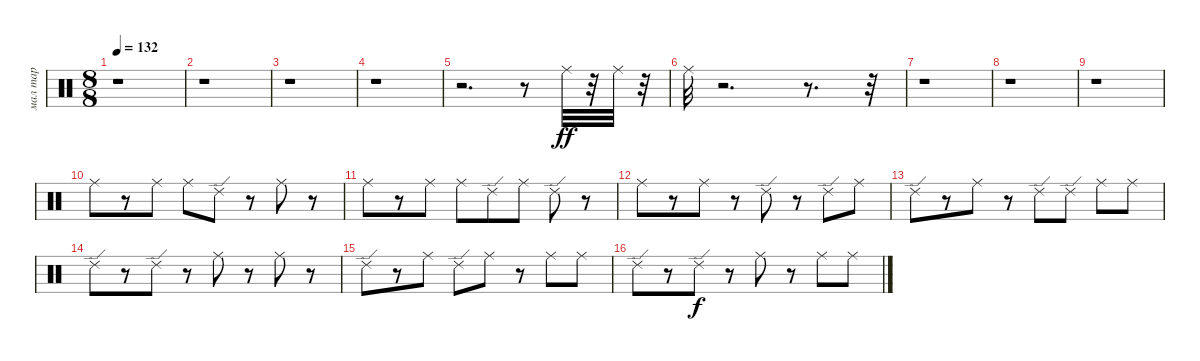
\track ("мал тар" "мал тар") {instrument percussion}
\staff {score}
\articulation defaults
\ts (8 8)
\tempo 132
\clef neutral
\ks c
r.1{dy ff} |
r.1 |
r.1 |
r.1 |
r.2{d} r.8 "Ride (middle)".32 r.32 "Ride (middle)".32 r.32 |
"Ride (middle)".32 r.2{d} r.8{d} r.32 |
r.1 |
r.1 |
r.1 |
"Ride (middle)".8 r.8 "Ride (middle)".8 "Ride (middle)".8 "Ride (edge) 2".8 r.8 "Ride (middle)".8 r.8 |
"Ride (middle)".8 r.8 "Ride (middle)".8 "Ride (middle)".8 "Ride (edge) 2".8 "Ride (middle)".8 "Ride (edge) 2".8 r.8 |
"Ride (middle)".8 r.8 "Ride (middle)".8 r.8 "Ride (edge) 2".8 r.8 "Ride (edge) 2".8 "Ride (middle)".8 |
"Ride (edge) 2".8 r.8 "Ride (middle)".8 r.8 "Ride (edge) 2".8 "Ride (edge) 2".8 "Ride (middle)".8 "Ride (middle)".8 |
"Ride (edge) 2".8 r.8 "Ride (edge) 2".8 r.8 "Ride (middle)".8 r.8 "Ride (middle)".8 r.8 |
"Ride (edge) 2".8 r.8 "Ride (middle)".8 "Ride (edge) 2".8 "Ride (middle)".8 r.8 "Ride (middle)".8 "Ride (middle)".8 |
"Ride (edge) 2".8 r.8 "Ride (edge) 2".8{dy f} r.8 "Ride (middle)".8 r.8 "Ride (middle)".8 "Ride (middle)".8
